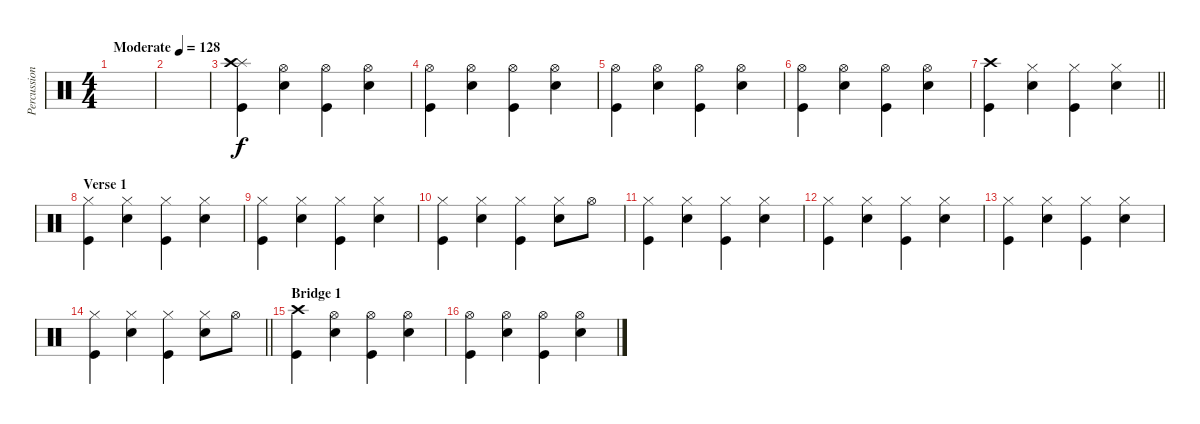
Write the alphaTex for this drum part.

\track ("Percussion" "Percussion") {instrument percussion}
\staff {score}
\articulation defaults
\ts (4 4)
\tempo (128 "Moderate")
\clef neutral
\ks c
|
|
("Splash (hit)" "Crash high (hit)" "Kick (hit)").4 ("Hi-Hat (open)" "Electric Snare (hit)").4 ("Hi-Hat (open)" "Kick (hit)").4 ("Hi-Hat (open)" "Electric Snare (hit)").4 |
("Hi-Hat (open)" "Kick (hit)").4 ("Hi-Hat (open)" "Electric Snare (hit)").4 ("Hi-Hat (open)" "Kick (hit)").4 ("Hi-Hat (open)" "Electric Snare (hit)").4 |
("Hi-Hat (open)" "Kick (hit)").4 ("Hi-Hat (open)" "Electric Snare (hit)").4 ("Hi-Hat (open)" "Kick (hit)").4 ("Hi-Hat (open)" "Electric Snare (hit)").4 |
("Hi-Hat (open)" "Kick (hit)").4 ("Hi-Hat (open)" "Electric Snare (hit)").4 ("Hi-Hat (open)" "Kick (hit)").4 ("Hi-Hat (open)" "Electric Snare (hit)").4 |
\barLineRight lightlight
("Crash high (hit)" "Kick (hit)").4 ("Hi-Hat (closed)" "Electric Snare (hit)").4 ("Hi-Hat (closed)" "Kick (hit)").4 ("Hi-Hat (closed)" "Electric Snare (hit)").4 |
\section ("" "Verse 1")
("Hi-Hat (closed)" "Kick (hit)").4 ("Hi-Hat (closed)" "Electric Snare (hit)").4 ("Hi-Hat (closed)" "Kick (hit)").4 ("Hi-Hat (closed)" "Electric Snare (hit)").4 |
("Hi-Hat (closed)" "Kick (hit)").4 ("Hi-Hat (closed)" "Electric Snare (hit)").4 ("Hi-Hat (closed)" "Kick (hit)").4 ("Hi-Hat (closed)" "Electric Snare (hit)").4 |
("Hi-Hat (closed)" "Kick (hit)").4 ("Hi-Hat (closed)" "Electric Snare (hit)").4 ("Hi-Hat (closed)" "Kick (hit)").4 ("Hi-Hat (closed)" "Electric Snare (hit)").8 "Hi-Hat (open)".8 |
("Hi-Hat (closed)" "Kick (hit)").4 ("Hi-Hat (closed)" "Electric Snare (hit)").4 ("Hi-Hat (closed)" "Kick (hit)").4 ("Hi-Hat (closed)" "Electric Snare (hit)").4 |
("Hi-Hat (closed)" "Kick (hit)").4 ("Hi-Hat (closed)" "Electric Snare (hit)").4 ("Hi-Hat (closed)" "Kick (hit)").4 ("Hi-Hat (closed)" "Electric Snare (hit)").4 |
("Hi-Hat (closed)" "Kick (hit)").4 ("Hi-Hat (closed)" "Electric Snare (hit)").4 ("Hi-Hat (closed)" "Kick (hit)").4 ("Hi-Hat (closed)" "Electric Snare (hit)").4 |
\barLineRight lightlight
("Hi-Hat (closed)" "Kick (hit)").4 ("Hi-Hat (closed)" "Electric Snare (hit)").4 ("Hi-Hat (closed)" "Kick (hit)").4 ("Hi-Hat (closed)" "Electric Snare (hit)").8 "Hi-Hat (open)".8 |
\section ("" "Bridge 1")
("Crash high (hit)" "Kick (hit)").4 ("Hi-Hat (open)" "Electric Snare (hit)").4 ("Hi-Hat (open)" "Kick (hit)").4 ("Hi-Hat (open)" "Electric Snare (hit)").4 |
("Hi-Hat (open)" "Kick (hit)").4 ("Hi-Hat (open)" "Electric Snare (hit)").4 ("Hi-Hat (open)" "Kick (hit)").4 ("Hi-Hat (open)" "Electric Snare (hit)").4
